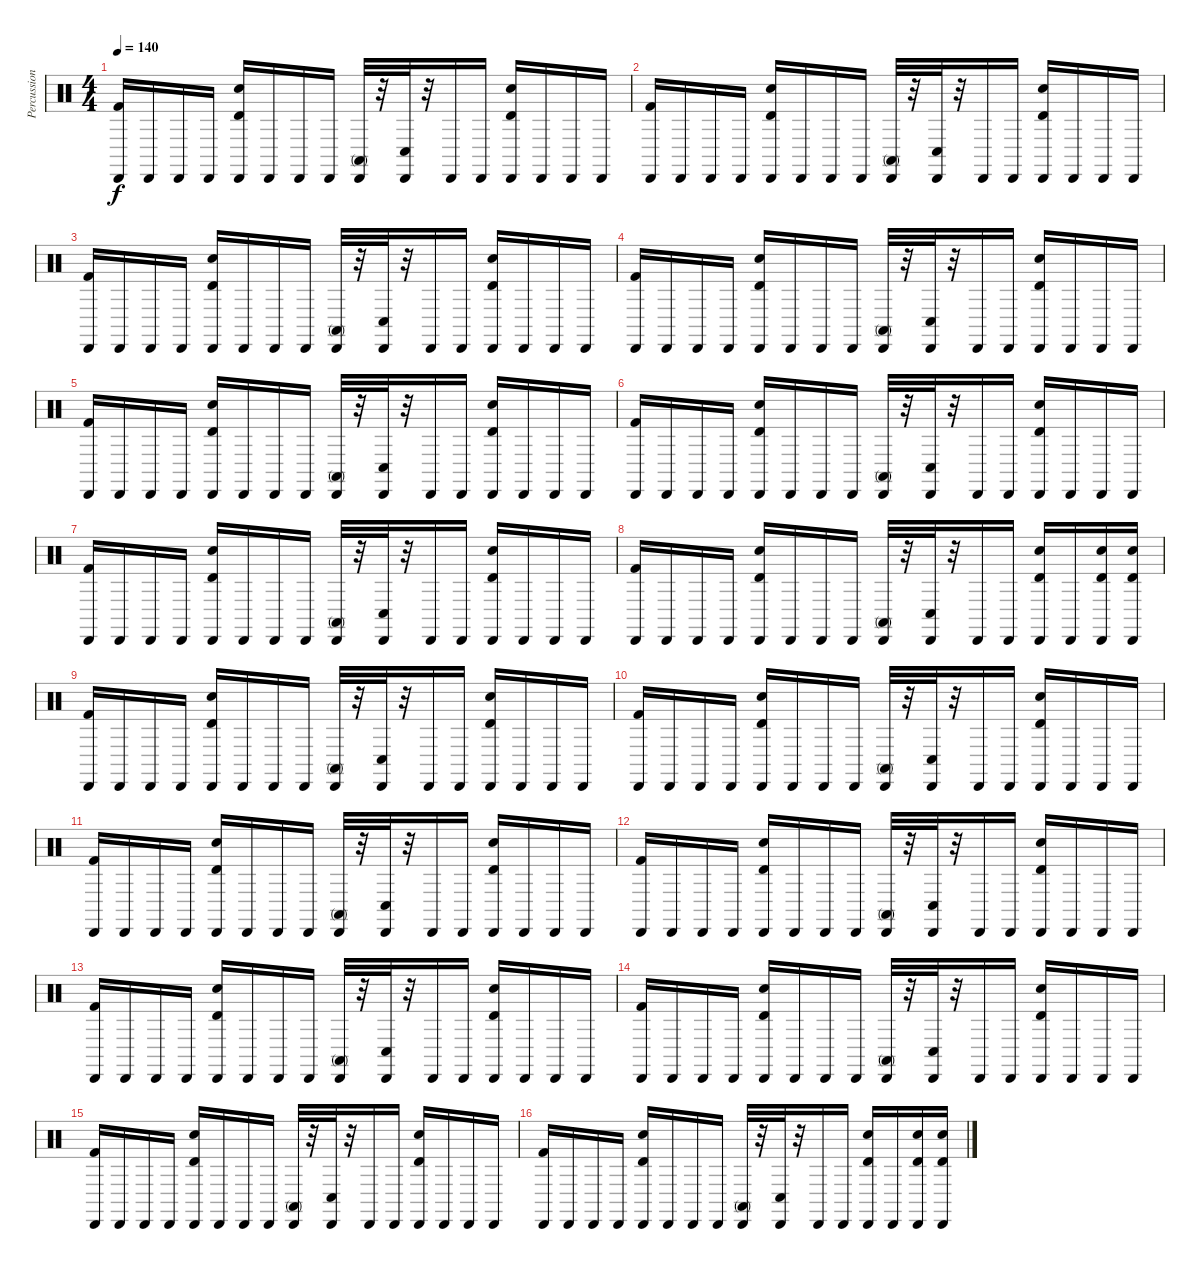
\track ("Percussions" "Percussion") {instrument percussion}
\staff {score}
\articulation defaults
\ts (4 4)
\tempo 140
\clef neutral
\ks c
("Kick (hit) 2" "Cabasa (hit)").16{dy f} "Cabasa (hit)".16 "Cabasa (hit)".16 "Cabasa (hit)".16 ("Timbale high (hit)" "Electric Snare (hit)" "Cabasa (hit)").16 "Cabasa (hit)".16 "Cabasa (hit)".16 "Cabasa (hit)".16 ("Conga high (mute)" "Cabasa (hit)").32 r.32 ("Conga low (hit)" "Cabasa (hit)").32 r.32 "Cabasa (hit)".16 "Cabasa (hit)".16 ("Electric Snare (hit)" "Timbale high (hit)" "Cabasa (hit)").16 "Cabasa (hit)".16 "Cabasa (hit)".16 "Cabasa (hit)".16 |
("Kick (hit) 2" "Cabasa (hit)").16 "Cabasa (hit)".16 "Cabasa (hit)".16 "Cabasa (hit)".16 ("Timbale high (hit)" "Electric Snare (hit)" "Cabasa (hit)").16 "Cabasa (hit)".16 "Cabasa (hit)".16 "Cabasa (hit)".16 ("Conga high (mute)" "Cabasa (hit)").32 r.32 ("Conga low (hit)" "Cabasa (hit)").32 r.32 "Cabasa (hit)".16 "Cabasa (hit)".16 ("Electric Snare (hit)" "Timbale high (hit)" "Cabasa (hit)").16 "Cabasa (hit)".16 "Cabasa (hit)".16 "Cabasa (hit)".16 |
("Kick (hit) 2" "Cabasa (hit)").16 "Cabasa (hit)".16 "Cabasa (hit)".16 "Cabasa (hit)".16 ("Timbale high (hit)" "Electric Snare (hit)" "Cabasa (hit)").16 "Cabasa (hit)".16 "Cabasa (hit)".16 "Cabasa (hit)".16 ("Conga high (mute)" "Cabasa (hit)").32 r.32 ("Conga low (hit)" "Cabasa (hit)").32 r.32 "Cabasa (hit)".16 "Cabasa (hit)".16 ("Electric Snare (hit)" "Timbale high (hit)" "Cabasa (hit)").16 "Cabasa (hit)".16 "Cabasa (hit)".16 "Cabasa (hit)".16 |
("Kick (hit) 2" "Cabasa (hit)").16 "Cabasa (hit)".16 "Cabasa (hit)".16 "Cabasa (hit)".16 ("Timbale high (hit)" "Electric Snare (hit)" "Cabasa (hit)").16 "Cabasa (hit)".16 "Cabasa (hit)".16 "Cabasa (hit)".16 ("Conga high (mute)" "Cabasa (hit)").32 r.32 ("Conga low (hit)" "Cabasa (hit)").32 r.32 "Cabasa (hit)".16 "Cabasa (hit)".16 ("Electric Snare (hit)" "Timbale high (hit)" "Cabasa (hit)").16 "Cabasa (hit)".16 "Cabasa (hit)".16 "Cabasa (hit)".16 |
("Kick (hit) 2" "Cabasa (hit)").16 "Cabasa (hit)".16 "Cabasa (hit)".16 "Cabasa (hit)".16 ("Timbale high (hit)" "Electric Snare (hit)" "Cabasa (hit)").16 "Cabasa (hit)".16 "Cabasa (hit)".16 "Cabasa (hit)".16 ("Conga high (mute)" "Cabasa (hit)").32 r.32 ("Conga low (hit)" "Cabasa (hit)").32 r.32 "Cabasa (hit)".16 "Cabasa (hit)".16 ("Electric Snare (hit)" "Timbale high (hit)" "Cabasa (hit)").16 "Cabasa (hit)".16 "Cabasa (hit)".16 "Cabasa (hit)".16 |
("Kick (hit) 2" "Cabasa (hit)").16 "Cabasa (hit)".16 "Cabasa (hit)".16 "Cabasa (hit)".16 ("Timbale high (hit)" "Electric Snare (hit)" "Cabasa (hit)").16 "Cabasa (hit)".16 "Cabasa (hit)".16 "Cabasa (hit)".16 ("Conga high (mute)" "Cabasa (hit)").32 r.32 ("Conga low (hit)" "Cabasa (hit)").32 r.32 "Cabasa (hit)".16 "Cabasa (hit)".16 ("Electric Snare (hit)" "Timbale high (hit)" "Cabasa (hit)").16 "Cabasa (hit)".16 "Cabasa (hit)".16 "Cabasa (hit)".16 |
("Kick (hit) 2" "Cabasa (hit)").16 "Cabasa (hit)".16 "Cabasa (hit)".16 "Cabasa (hit)".16 ("Timbale high (hit)" "Electric Snare (hit)" "Cabasa (hit)").16 "Cabasa (hit)".16 "Cabasa (hit)".16 "Cabasa (hit)".16 ("Conga high (mute)" "Cabasa (hit)").32 r.32 ("Conga low (hit)" "Cabasa (hit)").32 r.32 "Cabasa (hit)".16 "Cabasa (hit)".16 ("Electric Snare (hit)" "Timbale high (hit)" "Cabasa (hit)").16 "Cabasa (hit)".16 "Cabasa (hit)".16 "Cabasa (hit)".16 |
("Kick (hit) 2" "Cabasa (hit)").16 "Cabasa (hit)".16 "Cabasa (hit)".16 "Cabasa (hit)".16 ("Timbale high (hit)" "Electric Snare (hit)" "Cabasa (hit)").16 "Cabasa (hit)".16 "Cabasa (hit)".16 "Cabasa (hit)".16 ("Conga high (mute)" "Cabasa (hit)").32 r.32 ("Conga low (hit)" "Cabasa (hit)").32 r.32 "Cabasa (hit)".16 "Cabasa (hit)".16 ("Electric Snare (hit)" "Timbale high (hit)" "Cabasa (hit)").16 "Cabasa (hit)".16 ("Timbale high (hit)" "Electric Snare (hit)" "Cabasa (hit)").16 ("Timbale high (hit)" "Electric Snare (hit)" "Cabasa (hit)").16 |
("Kick (hit) 2" "Cabasa (hit)").16 "Cabasa (hit)".16 "Cabasa (hit)".16 "Cabasa (hit)".16 ("Timbale high (hit)" "Electric Snare (hit)" "Cabasa (hit)").16 "Cabasa (hit)".16 "Cabasa (hit)".16 "Cabasa (hit)".16 ("Conga high (mute)" "Cabasa (hit)").32 r.32 ("Conga low (hit)" "Cabasa (hit)").32 r.32 "Cabasa (hit)".16 "Cabasa (hit)".16 ("Electric Snare (hit)" "Timbale high (hit)" "Cabasa (hit)").16 "Cabasa (hit)".16 "Cabasa (hit)".16 "Cabasa (hit)".16 |
("Kick (hit) 2" "Cabasa (hit)").16 "Cabasa (hit)".16 "Cabasa (hit)".16 "Cabasa (hit)".16 ("Timbale high (hit)" "Electric Snare (hit)" "Cabasa (hit)").16 "Cabasa (hit)".16 "Cabasa (hit)".16 "Cabasa (hit)".16 ("Conga high (mute)" "Cabasa (hit)").32 r.32 ("Conga low (hit)" "Cabasa (hit)").32 r.32 "Cabasa (hit)".16 "Cabasa (hit)".16 ("Electric Snare (hit)" "Timbale high (hit)" "Cabasa (hit)").16 "Cabasa (hit)".16 "Cabasa (hit)".16 "Cabasa (hit)".16 |
("Kick (hit) 2" "Cabasa (hit)").16 "Cabasa (hit)".16 "Cabasa (hit)".16 "Cabasa (hit)".16 ("Timbale high (hit)" "Electric Snare (hit)" "Cabasa (hit)").16 "Cabasa (hit)".16 "Cabasa (hit)".16 "Cabasa (hit)".16 ("Conga high (mute)" "Cabasa (hit)").32 r.32 ("Conga low (hit)" "Cabasa (hit)").32 r.32 "Cabasa (hit)".16 "Cabasa (hit)".16 ("Electric Snare (hit)" "Timbale high (hit)" "Cabasa (hit)").16 "Cabasa (hit)".16 "Cabasa (hit)".16 "Cabasa (hit)".16 |
("Kick (hit) 2" "Cabasa (hit)").16 "Cabasa (hit)".16 "Cabasa (hit)".16 "Cabasa (hit)".16 ("Timbale high (hit)" "Electric Snare (hit)" "Cabasa (hit)").16 "Cabasa (hit)".16 "Cabasa (hit)".16 "Cabasa (hit)".16 ("Conga high (mute)" "Cabasa (hit)").32 r.32 ("Conga low (hit)" "Cabasa (hit)").32 r.32 "Cabasa (hit)".16 "Cabasa (hit)".16 ("Electric Snare (hit)" "Timbale high (hit)" "Cabasa (hit)").16 "Cabasa (hit)".16 "Cabasa (hit)".16 "Cabasa (hit)".16 |
("Kick (hit) 2" "Cabasa (hit)").16 "Cabasa (hit)".16 "Cabasa (hit)".16 "Cabasa (hit)".16 ("Timbale high (hit)" "Electric Snare (hit)" "Cabasa (hit)").16 "Cabasa (hit)".16 "Cabasa (hit)".16 "Cabasa (hit)".16 ("Conga high (mute)" "Cabasa (hit)").32 r.32 ("Conga low (hit)" "Cabasa (hit)").32 r.32 "Cabasa (hit)".16 "Cabasa (hit)".16 ("Electric Snare (hit)" "Timbale high (hit)" "Cabasa (hit)").16 "Cabasa (hit)".16 "Cabasa (hit)".16 "Cabasa (hit)".16 |
("Kick (hit) 2" "Cabasa (hit)").16 "Cabasa (hit)".16 "Cabasa (hit)".16 "Cabasa (hit)".16 ("Timbale high (hit)" "Electric Snare (hit)" "Cabasa (hit)").16 "Cabasa (hit)".16 "Cabasa (hit)".16 "Cabasa (hit)".16 ("Conga high (mute)" "Cabasa (hit)").32 r.32 ("Conga low (hit)" "Cabasa (hit)").32 r.32 "Cabasa (hit)".16 "Cabasa (hit)".16 ("Electric Snare (hit)" "Timbale high (hit)" "Cabasa (hit)").16 "Cabasa (hit)".16 "Cabasa (hit)".16 "Cabasa (hit)".16 |
("Kick (hit) 2" "Cabasa (hit)").16 "Cabasa (hit)".16 "Cabasa (hit)".16 "Cabasa (hit)".16 ("Timbale high (hit)" "Electric Snare (hit)" "Cabasa (hit)").16 "Cabasa (hit)".16 "Cabasa (hit)".16 "Cabasa (hit)".16 ("Conga high (mute)" "Cabasa (hit)").32 r.32 ("Conga low (hit)" "Cabasa (hit)").32 r.32 "Cabasa (hit)".16 "Cabasa (hit)".16 ("Electric Snare (hit)" "Timbale high (hit)" "Cabasa (hit)").16 "Cabasa (hit)".16 "Cabasa (hit)".16 "Cabasa (hit)".16 |
("Kick (hit) 2" "Cabasa (hit)").16 "Cabasa (hit)".16 "Cabasa (hit)".16 "Cabasa (hit)".16 ("Timbale high (hit)" "Electric Snare (hit)" "Cabasa (hit)").16 "Cabasa (hit)".16 "Cabasa (hit)".16 "Cabasa (hit)".16 ("Conga high (mute)" "Cabasa (hit)").32 r.32 ("Conga low (hit)" "Cabasa (hit)").32 r.32 "Cabasa (hit)".16 "Cabasa (hit)".16 ("Electric Snare (hit)" "Timbale high (hit)" "Cabasa (hit)").16 "Cabasa (hit)".16 ("Electric Snare (hit)" "Timbale high (hit)" "Cabasa (hit)").16 ("Electric Snare (hit)" "Timbale high (hit)" "Cabasa (hit)").16
